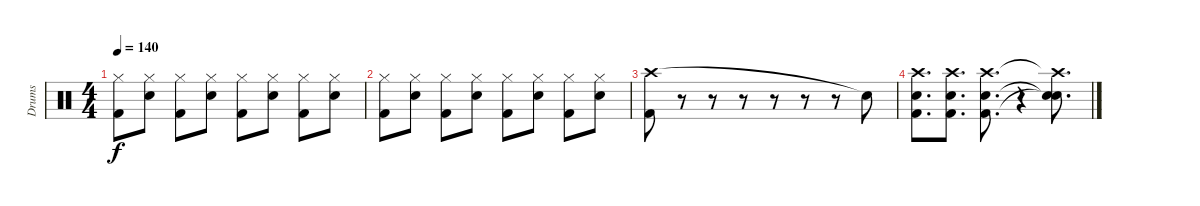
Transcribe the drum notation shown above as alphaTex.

\track ("Drums" "Drums") {instrument percussion}
\staff {score}
\articulation defaults
\ts (4 4)
\tempo 140
\clef neutral
\ks c
("Hi-Hat (closed)" "Kick (hit) 2").8{dy f} ("Hi-Hat (closed)" "Snare (hit) 2").8 ("Hi-Hat (closed)" "Kick (hit) 2").8 ("Hi-Hat (closed)" "Snare (hit) 2").8 ("Hi-Hat (closed)" "Kick (hit) 2").8 ("Hi-Hat (closed)" "Snare (hit) 2").8 ("Hi-Hat (closed)" "Kick (hit) 2").8 ("Hi-Hat (closed)" "Snare (hit) 2").8 |
("Hi-Hat (closed)" "Kick (hit) 2").8 ("Hi-Hat (closed)" "Snare (hit) 2").8 ("Hi-Hat (closed)" "Kick (hit) 2").8 ("Hi-Hat (closed)" "Snare (hit) 2").8 ("Hi-Hat (closed)" "Kick (hit) 2").8 ("Hi-Hat (closed)" "Snare (hit) 2").8 ("Hi-Hat (closed)" "Kick (hit) 2").8 ("Hi-Hat (closed)" "Snare (hit) 2").8 |
("Crash high (hit)" "Kick (hit) 2").8 r.8 r.8 r.8 r.8 r.8 r.8 "Snare (hit) 2"{t}.8 |
("Crash high (hit)" "Snare (hit) 2" "Kick (hit) 2").8{d} ("Crash high (hit)" "Snare (hit) 2" "Kick (hit) 2").8{d} ("Crash high (hit)" "Snare (hit) 2" "Kick (hit) 2").8{d} r.4 ("Crash high (hit)"{t} "Snare (hit) 2"{t} "Snare (hit) 2"{t}).8{d}
